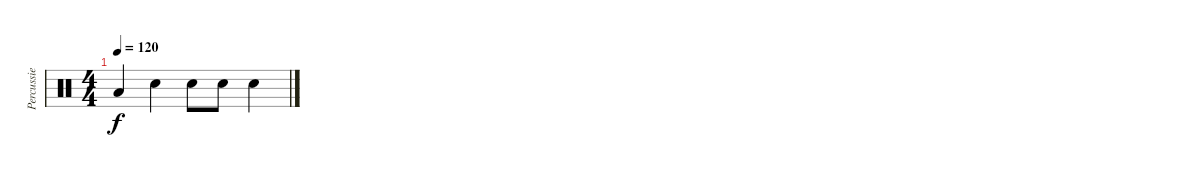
\track ("Percussie" "Percussie") {instrument percussion}
\staff {score}
\articulation defaults
\ts (4 4)
\tempo 120
\clef neutral
\ks c "Low Floor Tom (hit)".4{dy f} "Electric Snare (hit)".4 "Electric Snare (hit)".8 "Electric Snare (hit)".8 "Electric Snare (hit)".4
